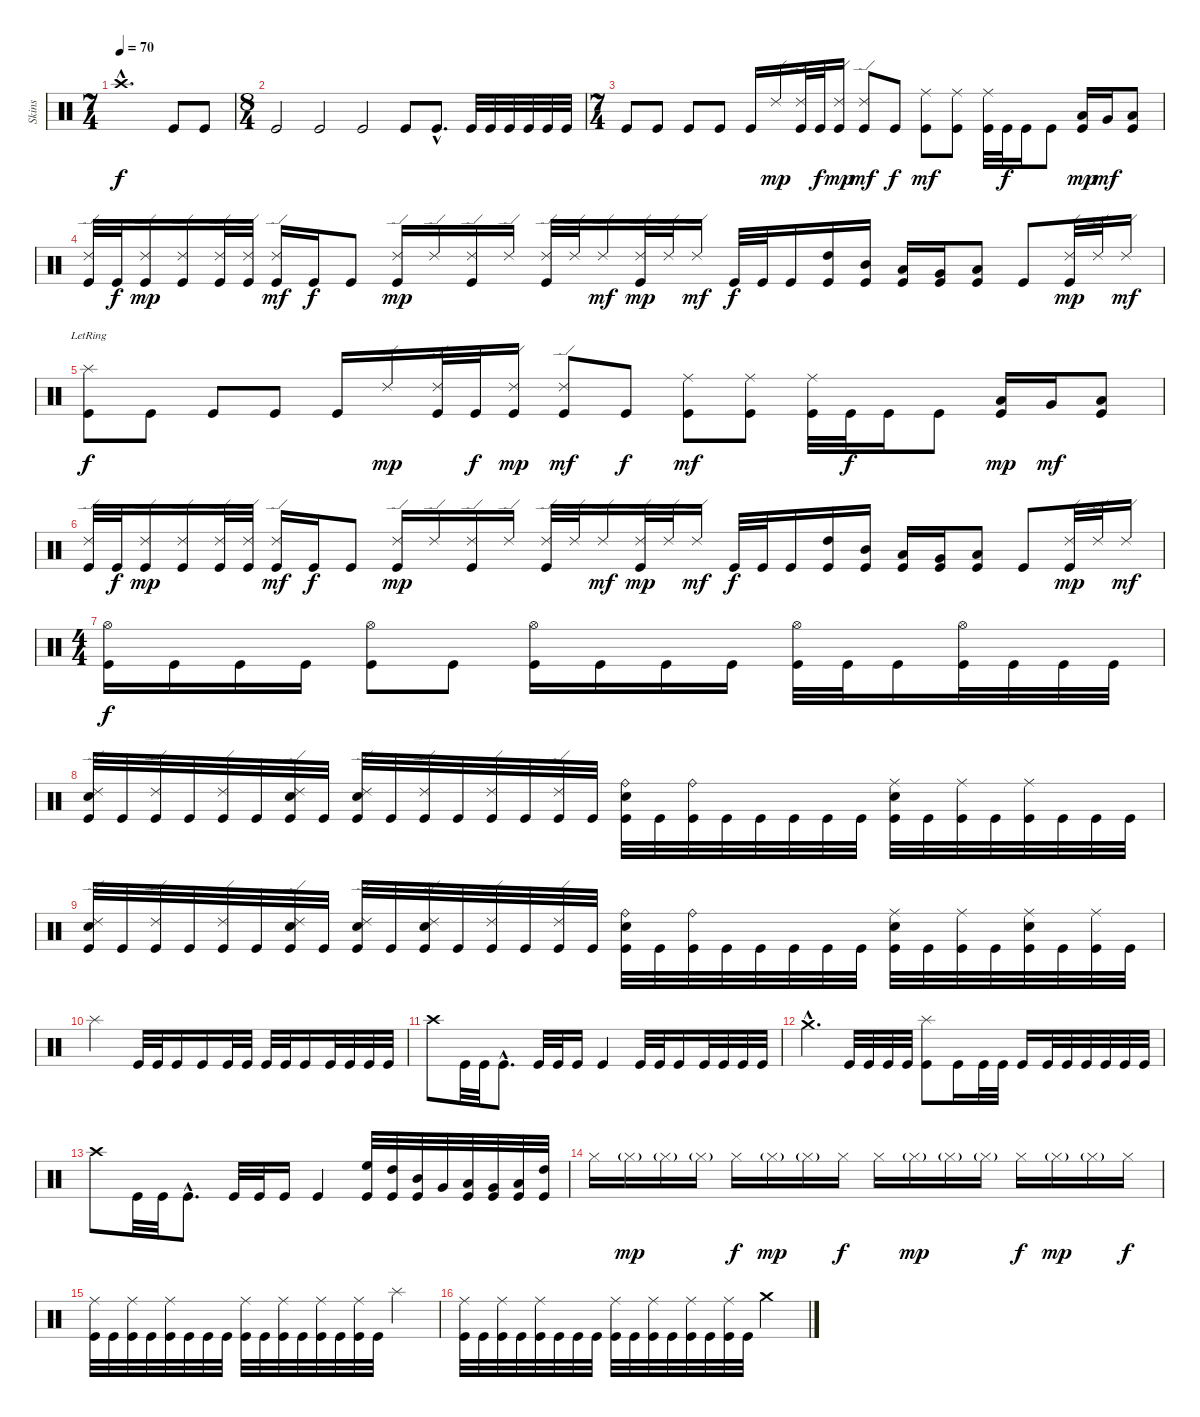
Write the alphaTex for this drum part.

\track ("Skins" "Skins") {instrument percussion}
\staff {score}
\articulation defaults
\ts (7 4)
\tempo 70
\clef neutral
\ks c "Crash high (hit)"{hac}.1{d dy f} "Kick (hit)".8 "Kick (hit)".8
|
\ts (8 4)
"Kick (hit)".2 "Kick (hit)".2 "Kick (hit)".2 "Kick (hit)".8 "Kick (hit)"{hac}.8{d} "Kick (hit)".32 "Kick (hit)".32 "Kick (hit)".32 "Kick (hit)".32 "Kick (hit)".32 "Kick (hit)".32 |
\ts (7 4)
"Kick (hit)".8 "Kick (hit)".8 "Kick (hit)".8 "Kick (hit)".8 "Kick (hit)".16 "Ride (edge) 2".16{dy mp} ("Ride (edge) 2" "Kick (hit)").32 "Kick (hit)".32{dy f} ("Ride (edge) 2" "Kick (hit)").16{dy mp} ("Ride (edge) 2" "Kick (hit)").8{dy mf} "Kick (hit)".8{dy f} ("Ride (middle)" "Kick (hit)").8{dy mf} ("Ride (middle)" "Kick (hit)").8 ("Ride (middle)" "Kick (hit)").32 "Kick (hit)".32{dy f} "Kick (hit)".16 "Kick (hit)".8 ("Low Floor Tom (hit)" "Kick (hit)").16{dy mp} "Very Low Tom (hit)".16{dy mf} ("Low Floor Tom (hit)" "Kick (hit)").8 |
("Ride (edge) 2" "Kick (hit)").32 "Kick (hit)".32{dy f} ("Ride (edge) 2" "Kick (hit)").16{dy mp} ("Ride (edge) 2" "Kick (hit)").16 ("Ride (edge) 2" "Kick (hit)").32 ("Ride (edge) 2" "Kick (hit)").32 ("Ride (edge) 2" "Kick (hit)").16{dy mf} "Kick (hit)".16{dy f} "Kick (hit)".8 ("Ride (edge) 2" "Kick (hit)").16{dy mp} "Ride (edge) 2".16 ("Ride (edge) 2" "Kick (hit)").16 "Ride (edge) 2".16 ("Ride (edge) 2" "Kick (hit)").32 "Ride (edge) 2".32 "Ride (edge) 2".16{dy mf} ("Ride (edge) 2" "Kick (hit)").32{dy mp} "Ride (edge) 2".32 "Ride (edge) 2".16{dy mf} "Kick (hit)".32{dy f} "Kick (hit)".32 "Kick (hit)".16 ("High Tom (hit)" "Kick (hit)").16 ("Mid Tom (hit)" "Kick (hit)").16 ("Low Tom (hit)" "Kick (hit)").16 ("Very Low Tom (hit)" "Kick (hit)").16 ("Low Floor Tom (hit)" "Kick (hit)").8 "Kick (hit)".8 ("Ride (edge) 2" "Kick (hit)").32{dy mp} "Ride (edge) 2".32 "Ride (edge) 2".16{dy mf} |
("Splash (hit)"{lr} "Kick (hit)").8{dy f} "Kick (hit)".8 "Kick (hit)".8 "Kick (hit)".8 "Kick (hit)".16 "Ride (edge) 2".16{dy mp} ("Ride (edge) 2" "Kick (hit)").32 "Kick (hit)".32{dy f} ("Ride (edge) 2" "Kick (hit)").16{dy mp} ("Ride (edge) 2" "Kick (hit)").8{dy mf} "Kick (hit)".8{dy f} ("Ride (middle)" "Kick (hit)").8{dy mf} ("Ride (middle)" "Kick (hit)").8 ("Ride (middle)" "Kick (hit)").32 "Kick (hit)".32{dy f} "Kick (hit)".16 "Kick (hit)".8 ("Low Floor Tom (hit)" "Kick (hit)").16{dy mp} "Very Low Tom (hit)".16{dy mf} ("Low Floor Tom (hit)" "Kick (hit)").8 |
("Ride (edge) 2" "Kick (hit)").32 "Kick (hit)".32{dy f} ("Ride (edge) 2" "Kick (hit)").16{dy mp} ("Ride (edge) 2" "Kick (hit)").16 ("Ride (edge) 2" "Kick (hit)").32 ("Ride (edge) 2" "Kick (hit)").32 ("Ride (edge) 2" "Kick (hit)").16{dy mf} "Kick (hit)".16{dy f} "Kick (hit)".8 ("Ride (edge) 2" "Kick (hit)").16{dy mp} "Ride (edge) 2".16 ("Ride (edge) 2" "Kick (hit)").16 "Ride (edge) 2".16 ("Ride (edge) 2" "Kick (hit)").32 "Ride (edge) 2".32 "Ride (edge) 2".16{dy mf} ("Ride (edge) 2" "Kick (hit)").32{dy mp} "Ride (edge) 2".32 "Ride (edge) 2".16{dy mf} "Kick (hit)".32{dy f} "Kick (hit)".32 "Kick (hit)".16 ("High Tom (hit)" "Kick (hit)").16 ("Mid Tom (hit)" "Kick (hit)").16 ("Low Tom (hit)" "Kick (hit)").16 ("Very Low Tom (hit)" "Kick (hit)").16 ("Low Floor Tom (hit)" "Kick (hit)").8 "Kick (hit)".8 ("Ride (edge) 2" "Kick (hit)").32{dy mp} "Ride (edge) 2".32 "Ride (edge) 2".16{dy mf} |
\ts (4 4)
("Hi-Hat (open)" "Kick (hit)").16{dy f} "Kick (hit)".16 "Kick (hit)".16 "Kick (hit)".16 ("Hi-Hat (open)" "Kick (hit)").8 "Kick (hit)".8 ("Hi-Hat (open)" "Kick (hit)").16 "Kick (hit)".16 "Kick (hit)".16 "Kick (hit)".16 ("Hi-Hat (open)" "Kick (hit)").32 "Kick (hit)".32 "Kick (hit)".16 ("Hi-Hat (open)" "Kick (hit)").32 "Kick (hit)".32 "Kick (hit)".32 "Kick (hit)".32 |
("Ride (edge) 2" "Snare (hit) 2" "Kick (hit)").32 "Kick (hit)".32 ("Ride (edge) 2" "Kick (hit)").32 "Kick (hit)".32 ("Ride (edge) 2" "Kick (hit)").32 "Kick (hit)".32 ("Ride (edge) 2" "Snare (hit) 2" "Kick (hit)").32 "Kick (hit)".32 ("Ride (edge) 2" "Snare (hit) 2" "Kick (hit)").32 "Kick (hit)".32 ("Ride (edge) 2" "Kick (hit)").32 "Kick (hit)".32 ("Ride (edge) 2" "Kick (hit)").32 "Kick (hit)".32 ("Ride (edge) 2" "Kick (hit)").32 "Kick (hit)".32 ("Ride (bell)" "Snare (hit) 2" "Kick (hit)").32 "Kick (hit)".32 ("Ride (bell)" "Kick (hit)").32 "Kick (hit)".32 "Kick (hit)".32 "Kick (hit)".32 "Kick (hit)".32 "Kick (hit)".32 ("Ride (middle)" "Snare (hit) 2" "Kick (hit)").32 "Kick (hit)".32 ("Ride (middle)" "Kick (hit)").32 "Kick (hit)".32 ("Ride (middle)" "Kick (hit)").32 "Kick (hit)".32 "Kick (hit)".32 "Kick (hit)".32 |
("Ride (edge) 2" "Snare (hit) 2" "Kick (hit)").32 "Kick (hit)".32 ("Ride (edge) 2" "Kick (hit)").32 "Kick (hit)".32 ("Ride (edge) 2" "Kick (hit)").32 "Kick (hit)".32 ("Ride (edge) 2" "Snare (hit) 2" "Kick (hit)").32 "Kick (hit)".32 ("Ride (edge) 2" "Snare (hit) 2" "Kick (hit)").32 "Kick (hit)".32 ("Ride (edge) 2" "Snare (hit) 2" "Kick (hit)").32 "Kick (hit)".32 ("Ride (edge) 2" "Kick (hit)").32 "Kick (hit)".32 ("Ride (edge) 2" "Kick (hit)").32 "Kick (hit)".32 ("Ride (bell)" "Snare (hit) 2" "Kick (hit)").32 "Kick (hit)".32 ("Ride (bell)" "Kick (hit)").32 "Kick (hit)".32 "Kick (hit)".32 "Kick (hit)".32 "Kick (hit)".32 "Kick (hit)".32 ("Ride (middle)" "Electric Snare (hit)" "Kick (hit)").32 "Kick (hit)".32 ("Ride (middle)" "Kick (hit)").32 "Kick (hit)".32 ("Ride (middle)" "Electric Snare (hit)" "Kick (hit)").32 "Kick (hit)".32 ("Ride (middle)" "Kick (hit)").32 "Kick (hit)".32 |
"Splash (hit)".2 "Kick (hit)".32 "Kick (hit)".32 "Kick (hit)".16 "Kick (hit)".16 "Kick (hit)".32 "Kick (hit)".32 "Kick (hit)".32 "Kick (hit)".32 "Kick (hit)".16 "Kick (hit)".32 "Kick (hit)".32 "Kick (hit)".32 "Kick (hit)".32 |
"Crash high (hit)".8 "Kick (hit)".32 "Kick (hit)".32 "Kick (hit)"{hac}.8{d} "Kick (hit)".32 "Kick (hit)".32 "Kick (hit)".16 "Kick (hit)".4 "Kick (hit)".32 "Kick (hit)".32 "Kick (hit)".16 "Kick (hit)".32 "Kick (hit)".32 "Kick (hit)".32 "Kick (hit)".32 |
"Crash medium (hit)"{hac}.4{d} "Kick (hit)".32 "Kick (hit)".32 "Kick (hit)".32 "Kick (hit)".32 ("Splash (hit)" "Kick (hit)").8 "Kick (hit)".16 "Kick (hit)".32 "Kick (hit)".32 "Kick (hit)".16 "Kick (hit)".32 "Kick (hit)".32 "Kick (hit)".32 "Kick (hit)".32 "Kick (hit)".32 "Kick (hit)".32 |
"Crash high (hit)".8 "Kick (hit)".32 "Kick (hit)".32 "Kick (hit)"{hac}.8{d} "Kick (hit)".32 "Kick (hit)".32 "Kick (hit)".16 "Kick (hit)".4 ("High Floor Tom (hit)" "Kick (hit)").32 ("High Tom (hit)" "Kick (hit)").32 ("Mid Tom (hit)" "Kick (hit)").32 "Very Low Tom (hit)".32 ("Low Floor Tom (hit)" "Kick (hit)").32 ("Very Low Tom (hit)" "Kick (hit)").32 ("Low Floor Tom (hit)" "Kick (hit)").32 ("High Tom (hit)" "Kick (hit)").32 |
"Hi-Hat (closed)".16 "Hi-Hat (closed)"{g}.16{dy mp} "Hi-Hat (closed)"{g}.16 "Hi-Hat (closed)"{g}.16 "Hi-Hat (closed)".16{dy f} "Hi-Hat (closed)"{g}.16{dy mp} "Hi-Hat (closed)"{g}.16 "Hi-Hat (closed)".16{dy f} "Hi-Hat (closed)".16 "Hi-Hat (closed)"{g}.16{dy mp} "Hi-Hat (closed)"{g}.16 "Hi-Hat (closed)"{g}.16 "Hi-Hat (closed)".16{dy f} "Hi-Hat (closed)"{g}.16{dy mp} "Hi-Hat (closed)"{g}.16 "Hi-Hat (closed)".16{dy f} |
("Ride (middle)" "Kick (hit)").32 "Kick (hit)".32 ("Ride (middle)" "Kick (hit)").32 "Kick (hit)".32 ("Ride (middle)" "Kick (hit)").32 "Kick (hit)".32 "Kick (hit)".32 "Kick (hit)".32 ("Ride (middle)" "Kick (hit)").32 "Kick (hit)".32 ("Ride (middle)" "Kick (hit)").32 "Kick (hit)".32 ("Ride (middle)" "Kick (hit)").32 "Kick (hit)".32 ("Ride (middle)" "Kick (hit)").32 "Kick (hit)".32 "Splash (hit)".2 |
("Ride (middle)" "Kick (hit)").32 "Kick (hit)".32 ("Ride (middle)" "Kick (hit)").32 "Kick (hit)".32 ("Ride (middle)" "Kick (hit)").32 "Kick (hit)".32 "Kick (hit)".32 "Kick (hit)".32 ("Ride (middle)" "Kick (hit)").32 "Kick (hit)".32 ("Ride (middle)" "Kick (hit)").32 "Kick (hit)".32 ("Ride (middle)" "Kick (hit)").32 "Kick (hit)".32 ("Ride (middle)" "Kick (hit)").32 "Kick (hit)".32 "Crash medium (hit)".2
